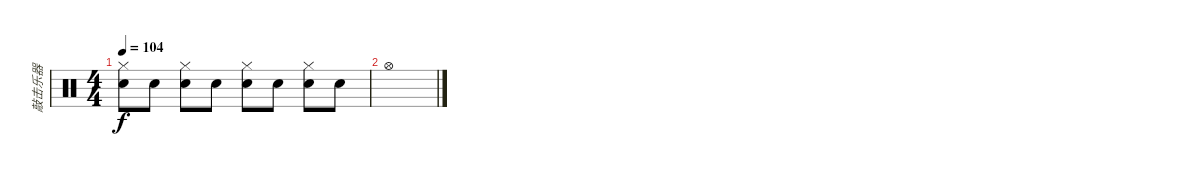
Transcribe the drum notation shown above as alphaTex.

\track ("敲击乐器" "敲击乐器") {instrument percussion}
\staff {score}
\articulation defaults
\ts (4 4)
\tempo 104
\clef neutral
\ks c
("Hi-Hat (closed)" "Snare (hit)").8{dy f} "Snare (hit)".8 ("Hi-Hat (closed)" "Snare (hit)").8 "Snare (hit)".8 ("Hi-Hat (closed)" "Snare (hit)").8 "Snare (hit)".8 ("Hi-Hat (closed)" "Snare (hit)").8 "Snare (hit)".8 |
"Hi-Hat (open)".1
